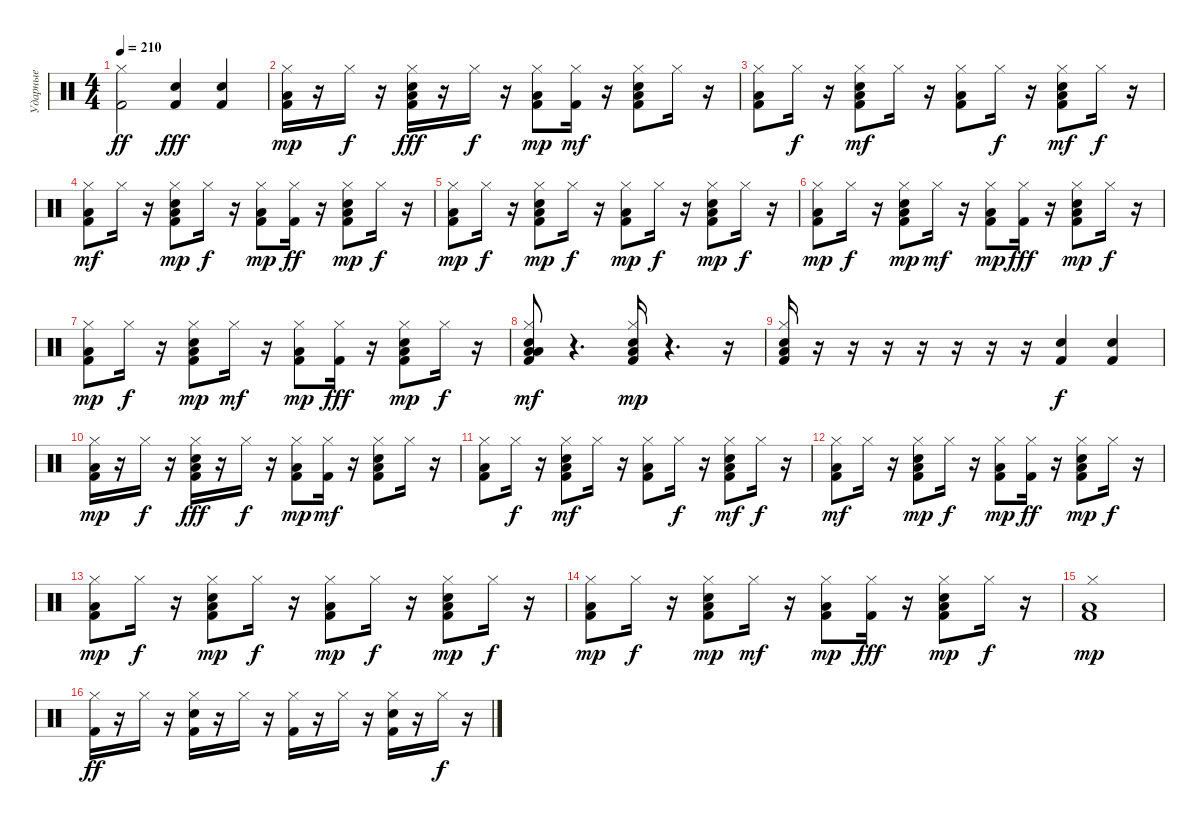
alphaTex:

\track ("Ударные" "Ударные") {instrument percussion}
\staff {score}
\articulation defaults
\ts (4 4)
\tempo 210
\clef neutral
\ks c
("Kick (hit) 2" "Hi-Hat (closed)").2{dy ff} ("Snare (hit) 2" "Kick (hit) 2").4{dy fff} ("Snare (hit) 2" "Kick (hit) 2").4 |
("Kick (hit) 2" "Hi-Hat (closed)" "Low Floor Tom (hit)").16{dy mp} r.16 "Hi-Hat (closed)".16{dy f} r.16 ("Kick (hit) 2" "Snare (hit) 2" "Hi-Hat (closed)" "Low Floor Tom (hit)").16{dy fff} r.16 "Hi-Hat (closed)".16{dy f} r.16 ("Kick (hit) 2" "Hi-Hat (closed)" "Low Floor Tom (hit)").8{dy mp} ("Kick (hit) 2" "Hi-Hat (closed)").16{dy mf} r.16 ("Kick (hit) 2" "Snare (hit) 2" "Hi-Hat (closed)" "Low Floor Tom (hit)").8 "Hi-Hat (closed)".16 r.16 |
("Kick (hit) 2" "Hi-Hat (closed)" "Low Floor Tom (hit)").8 "Hi-Hat (closed)".16{dy f} r.16 ("Kick (hit) 2" "Snare (hit) 2" "Hi-Hat (closed)" "Low Floor Tom (hit)").8{dy mf} "Hi-Hat (closed)".16 r.16 ("Kick (hit) 2" "Hi-Hat (closed)" "Low Floor Tom (hit)").8 "Hi-Hat (closed)".16{dy f} r.16 ("Kick (hit) 2" "Snare (hit) 2" "Hi-Hat (closed)" "Low Floor Tom (hit)").8{dy mf} "Hi-Hat (closed)".16{dy f} r.16 |
("Kick (hit) 2" "Hi-Hat (closed)" "Low Floor Tom (hit)").8{dy mf} "Hi-Hat (closed)".16 r.16 ("Kick (hit) 2" "Snare (hit) 2" "Hi-Hat (closed)" "Low Floor Tom (hit)").8{dy mp} "Hi-Hat (closed)".16{dy f} r.16 ("Kick (hit) 2" "Hi-Hat (closed)" "Low Floor Tom (hit)").8{dy mp} ("Kick (hit) 2" "Hi-Hat (closed)").16{dy ff} r.16 ("Kick (hit) 2" "Snare (hit) 2" "Hi-Hat (closed)" "Low Floor Tom (hit)").8{dy mp} "Hi-Hat (closed)".16{dy f} r.16 |
("Kick (hit) 2" "Hi-Hat (closed)" "Low Floor Tom (hit)").8{dy mp} "Hi-Hat (closed)".16{dy f} r.16 ("Kick (hit) 2" "Snare (hit) 2" "Hi-Hat (closed)" "Low Floor Tom (hit)").8{dy mp} "Hi-Hat (closed)".16{dy f} r.16 ("Kick (hit) 2" "Hi-Hat (closed)" "Low Floor Tom (hit)").8{dy mp} "Hi-Hat (closed)".16{dy f} r.16 ("Kick (hit) 2" "Snare (hit) 2" "Hi-Hat (closed)" "Low Floor Tom (hit)").8{dy mp} "Hi-Hat (closed)".16{dy f} r.16 |
("Kick (hit) 2" "Hi-Hat (closed)" "Low Floor Tom (hit)").8{dy mp} "Hi-Hat (closed)".16{dy f} r.16 ("Kick (hit) 2" "Snare (hit) 2" "Hi-Hat (closed)" "Low Floor Tom (hit)").8{dy mp} "Hi-Hat (closed)".16{dy mf} r.16 ("Kick (hit) 2" "Hi-Hat (closed)" "Low Floor Tom (hit)").8{dy mp} ("Kick (hit) 2" "Hi-Hat (closed)").16{dy fff} r.16 ("Kick (hit) 2" "Snare (hit) 2" "Hi-Hat (closed)" "Low Floor Tom (hit)").8{dy mp} "Hi-Hat (closed)".16{dy f} r.16 |
("Kick (hit) 2" "Hi-Hat (closed)" "Low Floor Tom (hit)").8{dy mp} "Hi-Hat (closed)".16{dy f} r.16 ("Kick (hit) 2" "Snare (hit) 2" "Hi-Hat (closed)" "Low Floor Tom (hit)").8{dy mp} "Hi-Hat (closed)".16{dy mf} r.16 ("Kick (hit) 2" "Hi-Hat (closed)" "Low Floor Tom (hit)").8{dy mp} ("Kick (hit) 2" "Hi-Hat (closed)").16{dy fff} r.16 ("Kick (hit) 2" "Snare (hit) 2" "Hi-Hat (closed)" "Low Floor Tom (hit)").8{dy mp} "Hi-Hat (closed)".16{dy f} r.16 |
("Kick (hit) 2" "Snare (hit) 2" "Hi-Hat (closed)" "Low Floor Tom (hit)" "Low Tom (hit)").8{dy mf} r.4{d} ("Kick (hit) 2" "Snare (hit) 2" "Hi-Hat (closed)" "Low Floor Tom (hit)").16{dy mp} r.4{d} r.16 |
("Kick (hit) 2" "Snare (hit) 2" "Hi-Hat (closed)" "Low Floor Tom (hit)").16 r.16 r.16 r.16 r.16 r.16 r.16 r.16 ("Snare (hit) 2" "Kick (hit) 2").4{dy f} ("Snare (hit) 2" "Kick (hit) 2").4 |
("Kick (hit) 2" "Hi-Hat (closed)" "Low Floor Tom (hit)").16{dy mp} r.16 "Hi-Hat (closed)".16{dy f} r.16 ("Kick (hit) 2" "Snare (hit) 2" "Hi-Hat (closed)" "Low Floor Tom (hit)").16{dy fff} r.16 "Hi-Hat (closed)".16{dy f} r.16 ("Kick (hit) 2" "Hi-Hat (closed)" "Low Floor Tom (hit)").8{dy mp} ("Kick (hit) 2" "Hi-Hat (closed)").16{dy mf} r.16 ("Kick (hit) 2" "Snare (hit) 2" "Hi-Hat (closed)" "Low Floor Tom (hit)").8 "Hi-Hat (closed)".16 r.16 |
("Kick (hit) 2" "Hi-Hat (closed)" "Low Floor Tom (hit)").8 "Hi-Hat (closed)".16{dy f} r.16 ("Kick (hit) 2" "Snare (hit) 2" "Hi-Hat (closed)" "Low Floor Tom (hit)").8{dy mf} "Hi-Hat (closed)".16 r.16 ("Kick (hit) 2" "Hi-Hat (closed)" "Low Floor Tom (hit)").8 "Hi-Hat (closed)".16{dy f} r.16 ("Kick (hit) 2" "Snare (hit) 2" "Hi-Hat (closed)" "Low Floor Tom (hit)").8{dy mf} "Hi-Hat (closed)".16{dy f} r.16 |
("Kick (hit) 2" "Hi-Hat (closed)" "Low Floor Tom (hit)").8{dy mf} "Hi-Hat (closed)".16 r.16 ("Kick (hit) 2" "Snare (hit) 2" "Hi-Hat (closed)" "Low Floor Tom (hit)").8{dy mp} "Hi-Hat (closed)".16{dy f} r.16 ("Kick (hit) 2" "Hi-Hat (closed)" "Low Floor Tom (hit)").8{dy mp} ("Kick (hit) 2" "Hi-Hat (closed)").16{dy ff} r.16 ("Kick (hit) 2" "Snare (hit) 2" "Hi-Hat (closed)" "Low Floor Tom (hit)").8{dy mp} "Hi-Hat (closed)".16{dy f} r.16 |
("Kick (hit) 2" "Hi-Hat (closed)" "Low Floor Tom (hit)").8{dy mp} "Hi-Hat (closed)".16{dy f} r.16 ("Kick (hit) 2" "Snare (hit) 2" "Hi-Hat (closed)" "Low Floor Tom (hit)").8{dy mp} "Hi-Hat (closed)".16{dy f} r.16 ("Kick (hit) 2" "Hi-Hat (closed)" "Low Floor Tom (hit)").8{dy mp} "Hi-Hat (closed)".16{dy f} r.16 ("Kick (hit) 2" "Snare (hit) 2" "Hi-Hat (closed)" "Low Floor Tom (hit)").8{dy mp} "Hi-Hat (closed)".16{dy f} r.16 |
("Kick (hit) 2" "Hi-Hat (closed)" "Low Floor Tom (hit)").8{dy mp} "Hi-Hat (closed)".16{dy f} r.16 ("Kick (hit) 2" "Snare (hit) 2" "Hi-Hat (closed)" "Low Floor Tom (hit)").8{dy mp} "Hi-Hat (closed)".16{dy mf} r.16 ("Kick (hit) 2" "Hi-Hat (closed)" "Low Floor Tom (hit)").8{dy mp} ("Kick (hit) 2" "Hi-Hat (closed)").16{dy fff} r.16 ("Kick (hit) 2" "Snare (hit) 2" "Hi-Hat (closed)" "Low Floor Tom (hit)").8{dy mp} "Hi-Hat (closed)".16{dy f} r.16 |
("Kick (hit) 2" "Hi-Hat (closed)" "Low Floor Tom (hit)").1{dy mp} |
("Kick (hit) 2" "Hi-Hat (closed)").16{dy ff} r.16 "Hi-Hat (closed)".16 r.16 ("Kick (hit) 2" "Snare (hit) 2" "Hi-Hat (closed)").16 r.16 "Hi-Hat (closed)".16 r.16 ("Kick (hit) 2" "Hi-Hat (closed)").16 r.16 "Hi-Hat (closed)".16 r.16 ("Kick (hit) 2" "Snare (hit) 2" "Hi-Hat (closed)").16 r.16 "Hi-Hat (closed)".16{dy f} r.16
